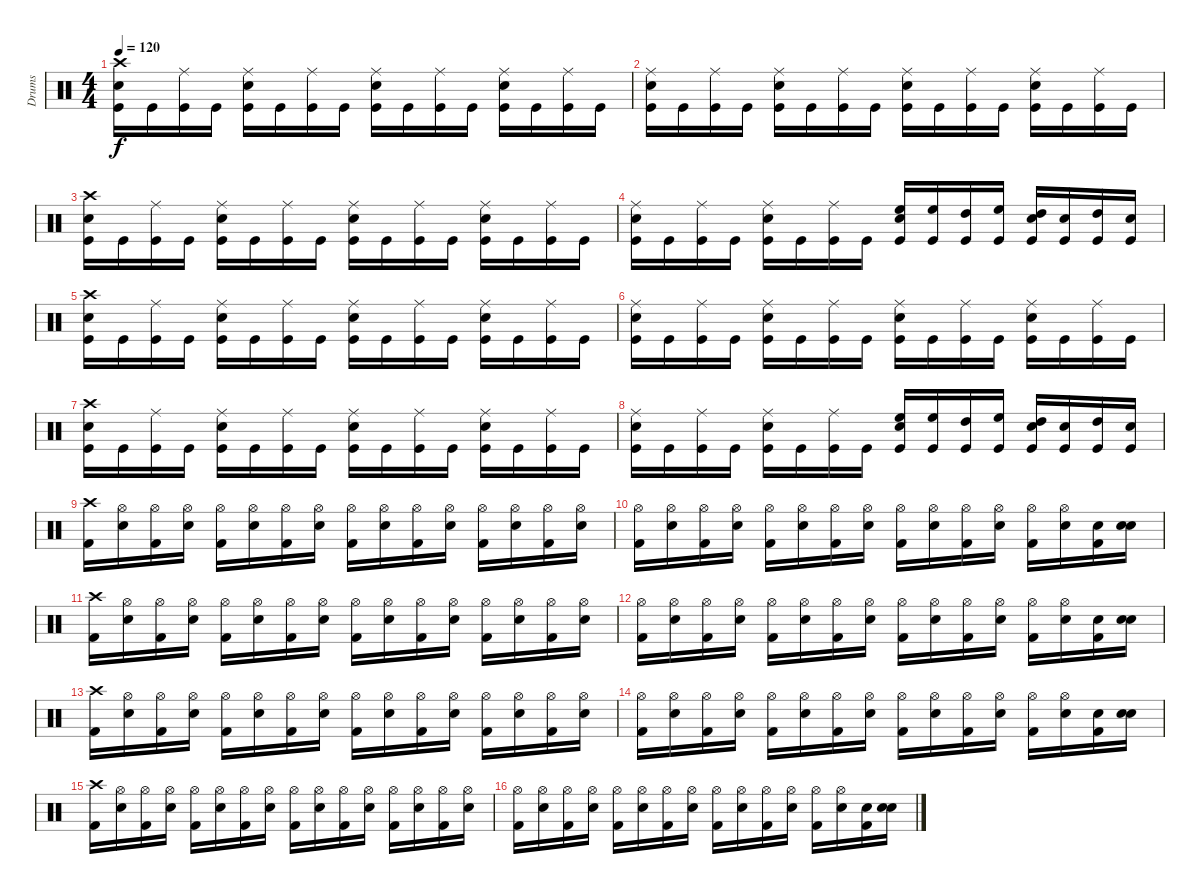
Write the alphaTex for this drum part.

\track ("Drums" "Drums") {instrument percussion}
\staff {score}
\articulation defaults
\ts (4 4)
\tempo 120
\clef neutral
\ks c
("Crash high (hit)" "Snare (hit) 2" "Kick (hit)").16{dy f} "Kick (hit)".16 ("Ride (middle)" "Kick (hit)").16 "Kick (hit)".16 ("Ride (middle)" "Snare (hit) 2" "Kick (hit)").16 "Kick (hit)".16 ("Ride (middle)" "Kick (hit)").16 "Kick (hit)".16 ("Ride (middle)" "Snare (hit) 2" "Kick (hit)").16 "Kick (hit)".16 ("Ride (middle)" "Kick (hit)").16 "Kick (hit)".16 ("Ride (middle)" "Snare (hit) 2" "Kick (hit)").16 "Kick (hit)".16 ("Ride (middle)" "Kick (hit)").16 "Kick (hit)".16 |
("Ride (middle)" "Snare (hit) 2" "Kick (hit)").16 "Kick (hit)".16 ("Ride (middle)" "Kick (hit)").16 "Kick (hit)".16 ("Ride (middle)" "Snare (hit) 2" "Kick (hit)").16 "Kick (hit)".16 ("Ride (middle)" "Kick (hit)").16 "Kick (hit)".16 ("Ride (middle)" "Snare (hit) 2" "Kick (hit)").16 "Kick (hit)".16 ("Ride (middle)" "Kick (hit)").16 "Kick (hit)".16 ("Ride (middle)" "Snare (hit) 2" "Kick (hit)").16 "Kick (hit)".16 ("Ride (middle)" "Kick (hit)").16 "Kick (hit)".16 |
("Crash high (hit)" "Snare (hit) 2" "Kick (hit)").16 "Kick (hit)".16 ("Ride (middle)" "Kick (hit)").16 "Kick (hit)".16 ("Ride (middle)" "Snare (hit) 2" "Kick (hit)").16 "Kick (hit)".16 ("Ride (middle)" "Kick (hit)").16 "Kick (hit)".16 ("Ride (middle)" "Snare (hit) 2" "Kick (hit)").16 "Kick (hit)".16 ("Ride (middle)" "Kick (hit)").16 "Kick (hit)".16 ("Ride (middle)" "Snare (hit) 2" "Kick (hit)").16 "Kick (hit)".16 ("Ride (middle)" "Kick (hit)").16 "Kick (hit)".16 |
("Ride (middle)" "Snare (hit) 2" "Kick (hit)").16 "Kick (hit)".16 ("Ride (middle)" "Kick (hit)").16 "Kick (hit)".16 ("Ride (middle)" "Snare (hit) 2" "Kick (hit)").16 "Kick (hit)".16 ("Ride (middle)" "Kick (hit)").16 "Kick (hit)".16 ("High Floor Tom (hit)" "Snare (hit) 2" "Kick (hit)").16 ("High Floor Tom (hit)" "Kick (hit)").16 ("High Tom (hit)" "Kick (hit)").16 ("High Floor Tom (hit)" "Kick (hit)").16 ("High Tom (hit)" "Snare (hit) 2" "Kick (hit)").16 ("Snare (hit) 2" "Kick (hit)").16 ("High Tom (hit)" "Kick (hit)").16 ("Snare (hit) 2" "Kick (hit)").16 |
("Crash high (hit)" "Snare (hit) 2" "Kick (hit)").16 "Kick (hit)".16 ("Ride (middle)" "Kick (hit)").16 "Kick (hit)".16 ("Ride (middle)" "Snare (hit) 2" "Kick (hit)").16 "Kick (hit)".16 ("Ride (middle)" "Kick (hit)").16 "Kick (hit)".16 ("Ride (middle)" "Snare (hit) 2" "Kick (hit)").16 "Kick (hit)".16 ("Ride (middle)" "Kick (hit)").16 "Kick (hit)".16 ("Ride (middle)" "Snare (hit) 2" "Kick (hit)").16 "Kick (hit)".16 ("Ride (middle)" "Kick (hit)").16 "Kick (hit)".16 |
("Ride (middle)" "Snare (hit) 2" "Kick (hit)").16 "Kick (hit)".16 ("Ride (middle)" "Kick (hit)").16 "Kick (hit)".16 ("Ride (middle)" "Snare (hit) 2" "Kick (hit)").16 "Kick (hit)".16 ("Ride (middle)" "Kick (hit)").16 "Kick (hit)".16 ("Ride (middle)" "Snare (hit) 2" "Kick (hit)").16 "Kick (hit)".16 ("Ride (middle)" "Kick (hit)").16 "Kick (hit)".16 ("Ride (middle)" "Snare (hit) 2" "Kick (hit)").16 "Kick (hit)".16 ("Ride (middle)" "Kick (hit)").16 "Kick (hit)".16 |
("Crash high (hit)" "Snare (hit) 2" "Kick (hit)").16 "Kick (hit)".16 ("Ride (middle)" "Kick (hit)").16 "Kick (hit)".16 ("Ride (middle)" "Snare (hit) 2" "Kick (hit)").16 "Kick (hit)".16 ("Ride (middle)" "Kick (hit)").16 "Kick (hit)".16 ("Ride (middle)" "Snare (hit) 2" "Kick (hit)").16 "Kick (hit)".16 ("Ride (middle)" "Kick (hit)").16 "Kick (hit)".16 ("Ride (middle)" "Snare (hit) 2" "Kick (hit)").16 "Kick (hit)".16 ("Ride (middle)" "Kick (hit)").16 "Kick (hit)".16 |
("Ride (middle)" "Snare (hit) 2" "Kick (hit)").16 "Kick (hit)".16 ("Ride (middle)" "Kick (hit)").16 "Kick (hit)".16 ("Ride (middle)" "Snare (hit) 2" "Kick (hit)").16 "Kick (hit)".16 ("Ride (middle)" "Kick (hit)").16 "Kick (hit)".16 ("High Floor Tom (hit)" "Snare (hit) 2" "Kick (hit)").16 ("High Floor Tom (hit)" "Kick (hit)").16 ("High Tom (hit)" "Kick (hit)").16 ("High Floor Tom (hit)" "Kick (hit)").16 ("High Tom (hit)" "Snare (hit) 2" "Kick (hit)").16 ("Snare (hit) 2" "Kick (hit)").16 ("High Tom (hit)" "Kick (hit)").16 ("Snare (hit) 2" "Kick (hit)").16 |
("Crash high (hit)" "Kick (hit) 2").16 ("Hi-Hat (open)" "Snare (hit) 2").16 ("Hi-Hat (open)" "Kick (hit) 2").16 ("Hi-Hat (open)" "Snare (hit) 2").16 ("Hi-Hat (open)" "Kick (hit) 2").16 ("Hi-Hat (open)" "Snare (hit) 2").16 ("Hi-Hat (open)" "Kick (hit) 2").16 ("Hi-Hat (open)" "Snare (hit) 2").16 ("Hi-Hat (open)" "Kick (hit) 2").16 ("Hi-Hat (open)" "Snare (hit) 2").16 ("Hi-Hat (open)" "Kick (hit) 2").16 ("Hi-Hat (open)" "Snare (hit) 2").16 ("Hi-Hat (open)" "Kick (hit) 2").16 ("Hi-Hat (open)" "Snare (hit) 2").16 ("Hi-Hat (open)" "Kick (hit) 2").16 ("Hi-Hat (open)" "Snare (hit) 2").16 |
("Hi-Hat (open)" "Kick (hit) 2").16 ("Hi-Hat (open)" "Snare (hit) 2").16 ("Hi-Hat (open)" "Kick (hit) 2").16 ("Hi-Hat (open)" "Snare (hit) 2").16 ("Hi-Hat (open)" "Kick (hit) 2").16 ("Hi-Hat (open)" "Snare (hit) 2").16 ("Hi-Hat (open)" "Kick (hit) 2").16 ("Hi-Hat (open)" "Snare (hit) 2").16 ("Hi-Hat (open)" "Kick (hit) 2").16 ("Hi-Hat (open)" "Snare (hit) 2").16 ("Hi-Hat (open)" "Kick (hit) 2").16 ("Hi-Hat (open)" "Snare (hit) 2").16 ("Hi-Hat (open)" "Kick (hit) 2").16 ("Hi-Hat (open)" "Snare (hit) 2").16 ("Snare (hit) 2" "Kick (hit) 2").16 ("Snare (hit) 2" "Snare (hit) 2").16 |
("Crash high (hit)" "Kick (hit) 2").16 ("Hi-Hat (open)" "Snare (hit) 2").16 ("Hi-Hat (open)" "Kick (hit) 2").16 ("Hi-Hat (open)" "Snare (hit) 2").16 ("Hi-Hat (open)" "Kick (hit) 2").16 ("Hi-Hat (open)" "Snare (hit) 2").16 ("Hi-Hat (open)" "Kick (hit) 2").16 ("Hi-Hat (open)" "Snare (hit) 2").16 ("Hi-Hat (open)" "Kick (hit) 2").16 ("Hi-Hat (open)" "Snare (hit) 2").16 ("Hi-Hat (open)" "Kick (hit) 2").16 ("Hi-Hat (open)" "Snare (hit) 2").16 ("Hi-Hat (open)" "Kick (hit) 2").16 ("Hi-Hat (open)" "Snare (hit) 2").16 ("Hi-Hat (open)" "Kick (hit) 2").16 ("Hi-Hat (open)" "Snare (hit) 2").16 |
("Hi-Hat (open)" "Kick (hit) 2").16 ("Hi-Hat (open)" "Snare (hit) 2").16 ("Hi-Hat (open)" "Kick (hit) 2").16 ("Hi-Hat (open)" "Snare (hit) 2").16 ("Hi-Hat (open)" "Kick (hit) 2").16 ("Hi-Hat (open)" "Snare (hit) 2").16 ("Hi-Hat (open)" "Kick (hit) 2").16 ("Hi-Hat (open)" "Snare (hit) 2").16 ("Hi-Hat (open)" "Kick (hit) 2").16 ("Hi-Hat (open)" "Snare (hit) 2").16 ("Hi-Hat (open)" "Kick (hit) 2").16 ("Hi-Hat (open)" "Snare (hit) 2").16 ("Hi-Hat (open)" "Kick (hit) 2").16 ("Hi-Hat (open)" "Snare (hit) 2").16 ("Snare (hit) 2" "Kick (hit) 2").16 ("Snare (hit) 2" "Snare (hit) 2").16 |
("Crash high (hit)" "Kick (hit) 2").16 ("Hi-Hat (open)" "Snare (hit) 2").16 ("Hi-Hat (open)" "Kick (hit) 2").16 ("Hi-Hat (open)" "Snare (hit) 2").16 ("Hi-Hat (open)" "Kick (hit) 2").16 ("Hi-Hat (open)" "Snare (hit) 2").16 ("Hi-Hat (open)" "Kick (hit) 2").16 ("Hi-Hat (open)" "Snare (hit) 2").16 ("Hi-Hat (open)" "Kick (hit) 2").16 ("Hi-Hat (open)" "Snare (hit) 2").16 ("Hi-Hat (open)" "Kick (hit) 2").16 ("Hi-Hat (open)" "Snare (hit) 2").16 ("Hi-Hat (open)" "Kick (hit) 2").16 ("Hi-Hat (open)" "Snare (hit) 2").16 ("Hi-Hat (open)" "Kick (hit) 2").16 ("Hi-Hat (open)" "Snare (hit) 2").16 |
("Hi-Hat (open)" "Kick (hit) 2").16 ("Hi-Hat (open)" "Snare (hit) 2").16 ("Hi-Hat (open)" "Kick (hit) 2").16 ("Hi-Hat (open)" "Snare (hit) 2").16 ("Hi-Hat (open)" "Kick (hit) 2").16 ("Hi-Hat (open)" "Snare (hit) 2").16 ("Hi-Hat (open)" "Kick (hit) 2").16 ("Hi-Hat (open)" "Snare (hit) 2").16 ("Hi-Hat (open)" "Kick (hit) 2").16 ("Hi-Hat (open)" "Snare (hit) 2").16 ("Hi-Hat (open)" "Kick (hit) 2").16 ("Hi-Hat (open)" "Snare (hit) 2").16 ("Hi-Hat (open)" "Kick (hit) 2").16 ("Hi-Hat (open)" "Snare (hit) 2").16 ("Snare (hit) 2" "Kick (hit) 2").16 ("Snare (hit) 2" "Snare (hit) 2").16 |
("Crash high (hit)" "Kick (hit) 2").16 ("Hi-Hat (open)" "Snare (hit) 2").16 ("Hi-Hat (open)" "Kick (hit) 2").16 ("Hi-Hat (open)" "Snare (hit) 2").16 ("Hi-Hat (open)" "Kick (hit) 2").16 ("Hi-Hat (open)" "Snare (hit) 2").16 ("Hi-Hat (open)" "Kick (hit) 2").16 ("Hi-Hat (open)" "Snare (hit) 2").16 ("Hi-Hat (open)" "Kick (hit) 2").16 ("Hi-Hat (open)" "Snare (hit) 2").16 ("Hi-Hat (open)" "Kick (hit) 2").16 ("Hi-Hat (open)" "Snare (hit) 2").16 ("Hi-Hat (open)" "Kick (hit) 2").16 ("Hi-Hat (open)" "Snare (hit) 2").16 ("Hi-Hat (open)" "Kick (hit) 2").16 ("Hi-Hat (open)" "Snare (hit) 2").16 |
("Hi-Hat (open)" "Kick (hit) 2").16 ("Hi-Hat (open)" "Snare (hit) 2").16 ("Hi-Hat (open)" "Kick (hit) 2").16 ("Hi-Hat (open)" "Snare (hit) 2").16 ("Hi-Hat (open)" "Kick (hit) 2").16 ("Hi-Hat (open)" "Snare (hit) 2").16 ("Hi-Hat (open)" "Kick (hit) 2").16 ("Hi-Hat (open)" "Snare (hit) 2").16 ("Hi-Hat (open)" "Kick (hit) 2").16 ("Hi-Hat (open)" "Snare (hit) 2").16 ("Hi-Hat (open)" "Kick (hit) 2").16 ("Hi-Hat (open)" "Snare (hit) 2").16 ("Hi-Hat (open)" "Kick (hit) 2").16 ("Hi-Hat (open)" "Snare (hit) 2").16 ("Snare (hit) 2" "Kick (hit) 2").16 ("Snare (hit) 2" "Snare (hit) 2").16
